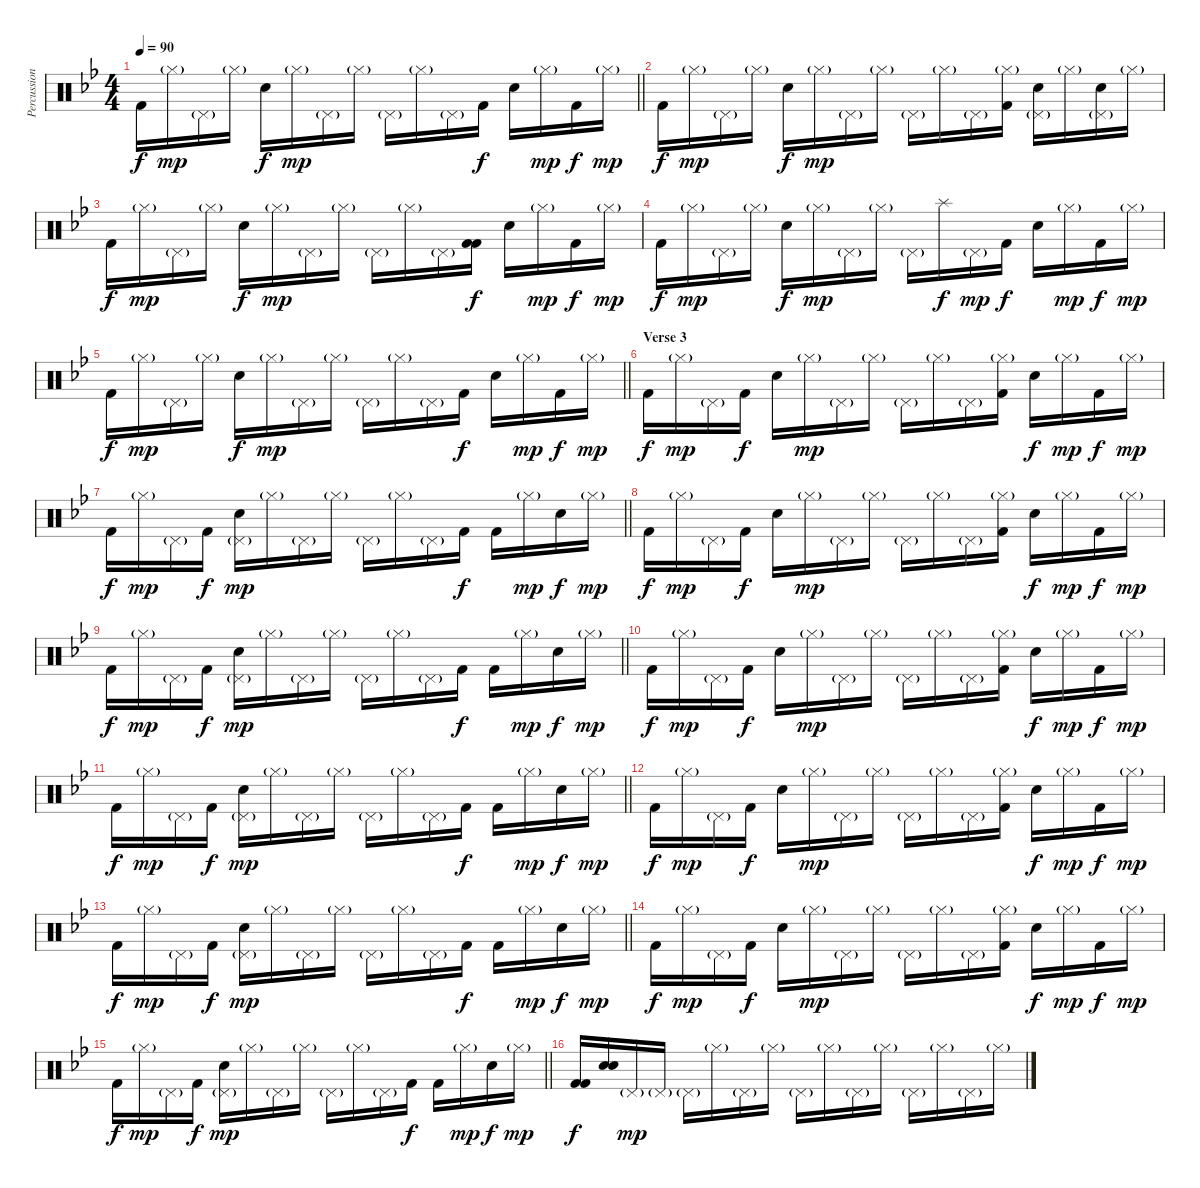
\track ("Percussion" "Percussion") {instrument percussion}
\staff {score}
\articulation defaults
\ts (4 4)
\tempo 90
\clef neutral
\barLineRight lightlight
\ks bb "Kick (hit) 2".16{dy f} "Hi-Hat (closed)"{g}.16{dy mp} "Pedal Hi-Hat (hit)"{g}.16 "Hi-Hat (closed)"{g}.16 "Snare (hit) 2".16{dy f} "Hi-Hat (closed)"{g}.16{dy mp} "Pedal Hi-Hat (hit)"{g}.16 "Hi-Hat (closed)"{g}.16 "Pedal Hi-Hat (hit)"{g}.16 "Hi-Hat (closed)"{g}.16 "Pedal Hi-Hat (hit)"{g}.16 "Kick (hit) 2".16{dy f} "Snare (hit) 2".16 "Hi-Hat (closed)"{g}.16{dy mp} "Kick (hit) 2".16{dy f} "Hi-Hat (closed)"{g}.16{dy mp}
|
"Kick (hit) 2".16{dy f} "Hi-Hat (closed)"{g}.16{dy mp} "Pedal Hi-Hat (hit)"{g}.16 "Hi-Hat (closed)"{g}.16 "Snare (hit) 2".16{dy f} "Hi-Hat (closed)"{g}.16{dy mp} "Pedal Hi-Hat (hit)"{g}.16 "Hi-Hat (closed)"{g}.16 "Pedal Hi-Hat (hit)"{g}.16 "Hi-Hat (closed)"{g}.16 "Pedal Hi-Hat (hit)"{g}.16 ("Hi-Hat (closed)"{g} "Kick (hit) 2").16 ("Pedal Hi-Hat (hit)"{g} "Snare (hit) 2").16 "Hi-Hat (closed)"{g}.16 ("Pedal Hi-Hat (hit)"{g} "Snare (hit) 2").16 "Hi-Hat (closed)"{g}.16 |
"Kick (hit) 2".16{dy f} "Hi-Hat (closed)"{g}.16{dy mp} "Pedal Hi-Hat (hit)"{g}.16 "Hi-Hat (closed)"{g}.16 "Snare (hit) 2".16{dy f} "Hi-Hat (closed)"{g}.16{dy mp} "Pedal Hi-Hat (hit)"{g}.16 "Hi-Hat (closed)"{g}.16 "Pedal Hi-Hat (hit)"{g}.16 "Hi-Hat (closed)"{g}.16 "Pedal Hi-Hat (hit)"{g}.16 ("Kick (hit) 2" "Kick (hit) 2").16{dy f} "Snare (hit) 2".16 "Hi-Hat (closed)"{g}.16{dy mp} "Kick (hit) 2".16{dy f} "Hi-Hat (closed)"{g}.16{dy mp} |
"Kick (hit) 2".16{dy f} "Hi-Hat (closed)"{g}.16{dy mp} "Pedal Hi-Hat (hit)"{g}.16 "Hi-Hat (closed)"{g}.16 "Snare (hit) 2".16{dy f} "Hi-Hat (closed)"{g}.16{dy mp} "Pedal Hi-Hat (hit)"{g}.16 "Hi-Hat (closed)"{g}.16 "Pedal Hi-Hat (hit)"{g}.16 "Splash (hit)".16{dy f} "Pedal Hi-Hat (hit)"{g}.16{dy mp} "Kick (hit) 2".16{dy f} "Snare (hit) 2".16 "Hi-Hat (closed)"{g}.16{dy mp} "Kick (hit) 2".16{dy f} "Hi-Hat (closed)"{g}.16{dy mp} |
\barLineRight lightlight "Kick (hit) 2".16{dy f} "Hi-Hat (closed)"{g}.16{dy mp} "Pedal Hi-Hat (hit)"{g}.16 "Hi-Hat (closed)"{g}.16 "Snare (hit) 2".16{dy f} "Hi-Hat (closed)"{g}.16{dy mp} "Pedal Hi-Hat (hit)"{g}.16 "Hi-Hat (closed)"{g}.16 "Pedal Hi-Hat (hit)"{g}.16 "Hi-Hat (closed)"{g}.16 "Pedal Hi-Hat (hit)"{g}.16 "Kick (hit) 2".16{dy f} "Snare (hit) 2".16 "Hi-Hat (closed)"{g}.16{dy mp} "Kick (hit) 2".16{dy f} "Hi-Hat (closed)"{g}.16{dy mp}
|
\section ("" "Verse 3")
"Kick (hit) 2".16{dy f} "Hi-Hat (closed)"{g}.16{dy mp} "Pedal Hi-Hat (hit)"{g}.16 "Kick (hit) 2".16{dy f} "Electric Snare (hit)".16 "Hi-Hat (closed)"{g}.16{dy mp} "Pedal Hi-Hat (hit)"{g}.16 "Hi-Hat (closed)"{g}.16 "Pedal Hi-Hat (hit)"{g}.16 "Hi-Hat (closed)"{g}.16 "Pedal Hi-Hat (hit)"{g}.16 ("Hi-Hat (closed)"{g} "Kick (hit) 2").16 "Snare (hit) 2".16{dy f} "Hi-Hat (closed)"{g}.16{dy mp} "Kick (hit) 2".16{dy f} "Hi-Hat (closed)"{g}.16{dy mp} |
\barLineRight lightlight "Kick (hit) 2".16{dy f} "Hi-Hat (closed)"{g}.16{dy mp} "Pedal Hi-Hat (hit)"{g}.16 "Kick (hit) 2".16{dy f}
("Pedal Hi-Hat (hit)"{g} "Snare (hit) 2").16{dy mp} "Hi-Hat (closed)"{g}.16 "Pedal Hi-Hat (hit)"{g}.16 "Hi-Hat (closed)"{g}.16 "Pedal Hi-Hat (hit)"{g}.16 "Hi-Hat (closed)"{g}.16 "Pedal Hi-Hat (hit)"{g}.16 "Kick (hit) 2".16{dy f} "Kick (hit) 2".16 "Hi-Hat (closed)"{g}.16{dy mp} "Snare (hit) 2".16{dy f} "Hi-Hat (closed)"{g}.16{dy mp} |
"Kick (hit) 2".16{dy f} "Hi-Hat (closed)"{g}.16{dy mp} "Pedal Hi-Hat (hit)"{g}.16 "Kick (hit) 2".16{dy f} "Electric Snare (hit)".16 "Hi-Hat (closed)"{g}.16{dy mp} "Pedal Hi-Hat (hit)"{g}.16 "Hi-Hat (closed)"{g}.16 "Pedal Hi-Hat (hit)"{g}.16 "Hi-Hat (closed)"{g}.16 "Pedal Hi-Hat (hit)"{g}.16 ("Hi-Hat (closed)"{g} "Kick (hit) 2").16 "Snare (hit) 2".16{dy f} "Hi-Hat (closed)"{g}.16{dy mp} "Kick (hit) 2".16{dy f} "Hi-Hat (closed)"{g}.16{dy mp} |
\barLineRight lightlight "Kick (hit) 2".16{dy f} "Hi-Hat (closed)"{g}.16{dy mp} "Pedal Hi-Hat (hit)"{g}.16 "Kick (hit) 2".16{dy f}
("Pedal Hi-Hat (hit)"{g} "Snare (hit) 2").16{dy mp} "Hi-Hat (closed)"{g}.16 "Pedal Hi-Hat (hit)"{g}.16 "Hi-Hat (closed)"{g}.16 "Pedal Hi-Hat (hit)"{g}.16 "Hi-Hat (closed)"{g}.16 "Pedal Hi-Hat (hit)"{g}.16 "Kick (hit) 2".16{dy f} "Kick (hit) 2".16 "Hi-Hat (closed)"{g}.16{dy mp} "Snare (hit) 2".16{dy f} "Hi-Hat (closed)"{g}.16{dy mp} |
"Kick (hit) 2".16{dy f} "Hi-Hat (closed)"{g}.16{dy mp} "Pedal Hi-Hat (hit)"{g}.16 "Kick (hit) 2".16{dy f} "Electric Snare (hit)".16 "Hi-Hat (closed)"{g}.16{dy mp} "Pedal Hi-Hat (hit)"{g}.16 "Hi-Hat (closed)"{g}.16 "Pedal Hi-Hat (hit)"{g}.16 "Hi-Hat (closed)"{g}.16 "Pedal Hi-Hat (hit)"{g}.16 ("Hi-Hat (closed)"{g} "Kick (hit) 2").16 "Snare (hit) 2".16{dy f} "Hi-Hat (closed)"{g}.16{dy mp} "Kick (hit) 2".16{dy f} "Hi-Hat (closed)"{g}.16{dy mp} |
\barLineRight lightlight "Kick (hit) 2".16{dy f} "Hi-Hat (closed)"{g}.16{dy mp} "Pedal Hi-Hat (hit)"{g}.16 "Kick (hit) 2".16{dy f}
("Pedal Hi-Hat (hit)"{g} "Snare (hit) 2").16{dy mp} "Hi-Hat (closed)"{g}.16 "Pedal Hi-Hat (hit)"{g}.16 "Hi-Hat (closed)"{g}.16 "Pedal Hi-Hat (hit)"{g}.16 "Hi-Hat (closed)"{g}.16 "Pedal Hi-Hat (hit)"{g}.16 "Kick (hit) 2".16{dy f} "Kick (hit) 2".16 "Hi-Hat (closed)"{g}.16{dy mp} "Snare (hit) 2".16{dy f} "Hi-Hat (closed)"{g}.16{dy mp} |
"Kick (hit) 2".16{dy f} "Hi-Hat (closed)"{g}.16{dy mp} "Pedal Hi-Hat (hit)"{g}.16 "Kick (hit) 2".16{dy f} "Electric Snare (hit)".16 "Hi-Hat (closed)"{g}.16{dy mp} "Pedal Hi-Hat (hit)"{g}.16 "Hi-Hat (closed)"{g}.16 "Pedal Hi-Hat (hit)"{g}.16 "Hi-Hat (closed)"{g}.16 "Pedal Hi-Hat (hit)"{g}.16 ("Hi-Hat (closed)"{g} "Kick (hit) 2").16 "Snare (hit) 2".16{dy f} "Hi-Hat (closed)"{g}.16{dy mp} "Kick (hit) 2".16{dy f} "Hi-Hat (closed)"{g}.16{dy mp} |
\barLineRight lightlight "Kick (hit) 2".16{dy f} "Hi-Hat (closed)"{g}.16{dy mp} "Pedal Hi-Hat (hit)"{g}.16 "Kick (hit) 2".16{dy f}
("Pedal Hi-Hat (hit)"{g} "Snare (hit) 2").16{dy mp} "Hi-Hat (closed)"{g}.16 "Pedal Hi-Hat (hit)"{g}.16 "Hi-Hat (closed)"{g}.16 "Pedal Hi-Hat (hit)"{g}.16 "Hi-Hat (closed)"{g}.16 "Pedal Hi-Hat (hit)"{g}.16 "Kick (hit) 2".16{dy f} "Kick (hit) 2".16 "Hi-Hat (closed)"{g}.16{dy mp} "Snare (hit) 2".16{dy f} "Hi-Hat (closed)"{g}.16{dy mp} |
"Kick (hit) 2".16{dy f} "Hi-Hat (closed)"{g}.16{dy mp} "Pedal Hi-Hat (hit)"{g}.16 "Kick (hit) 2".16{dy f} "Electric Snare (hit)".16 "Hi-Hat (closed)"{g}.16{dy mp} "Pedal Hi-Hat (hit)"{g}.16 "Hi-Hat (closed)"{g}.16 "Pedal Hi-Hat (hit)"{g}.16 "Hi-Hat (closed)"{g}.16 "Pedal Hi-Hat (hit)"{g}.16 ("Hi-Hat (closed)"{g} "Kick (hit) 2").16 "Snare (hit) 2".16{dy f} "Hi-Hat (closed)"{g}.16{dy mp} "Kick (hit) 2".16{dy f} "Hi-Hat (closed)"{g}.16{dy mp} |
\barLineRight lightlight "Kick (hit) 2".16{dy f} "Hi-Hat (closed)"{g}.16{dy mp} "Pedal Hi-Hat (hit)"{g}.16 "Kick (hit) 2".16{dy f}
("Pedal Hi-Hat (hit)"{g} "Snare (hit) 2").16{dy mp} "Hi-Hat (closed)"{g}.16 "Pedal Hi-Hat (hit)"{g}.16 "Hi-Hat (closed)"{g}.16 "Pedal Hi-Hat (hit)"{g}.16 "Hi-Hat (closed)"{g}.16 "Pedal Hi-Hat (hit)"{g}.16 "Kick (hit) 2".16{dy f} "Kick (hit) 2".16 "Hi-Hat (closed)"{g}.16{dy mp} "Snare (hit) 2".16{dy f} "Hi-Hat (closed)"{g}.16{dy mp} |
("Kick (hit) 2" "Kick (hit) 2").16{dy f} ("Snare (hit) 2" "Electric Snare (hit)").16 "Pedal Hi-Hat (hit)"{g}.16{dy mp} "Pedal Hi-Hat (hit)"{g}.16 "Pedal Hi-Hat (hit)"{g}.16 "Hi-Hat (closed)"{g}.16 "Pedal Hi-Hat (hit)"{g}.16 "Hi-Hat (closed)"{g}.16 "Pedal Hi-Hat (hit)"{g}.16 "Hi-Hat (closed)"{g}.16 "Pedal Hi-Hat (hit)"{g}.16 "Hi-Hat (closed)"{g}.16 "Pedal Hi-Hat (hit)"{g}.16 "Hi-Hat (closed)"{g}.16 "Pedal Hi-Hat (hit)"{g}.16 "Hi-Hat (closed)"{g}.16
